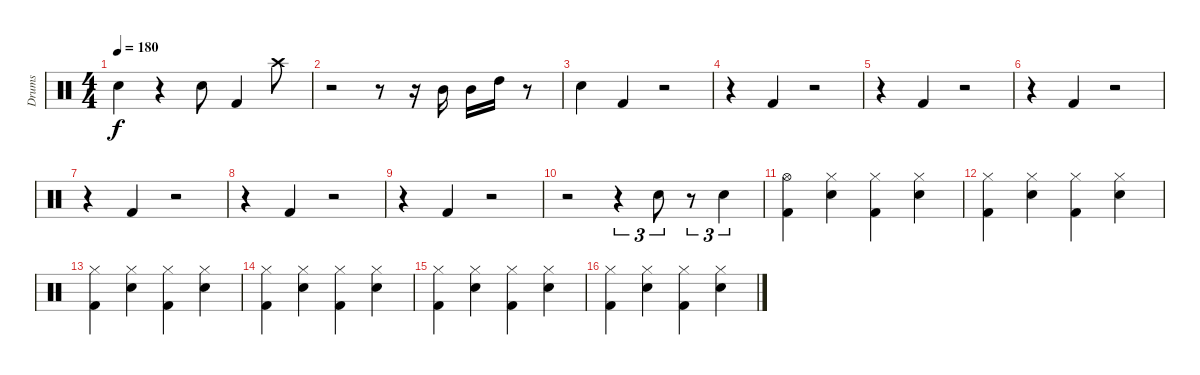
\track ("Drums" "Drums") {instrument percussion}
\staff {score}
\articulation defaults
\ts (4 4)
\tempo 180
\clef neutral
\ks c "Snare (hit) 2".4{dy f}
r.4 "Snare (hit) 2".8 "Kick (hit) 2".4 "Crash high (hit)".8 |
r.2 r.8 r.16 "Mid Tom (hit)".16 "Mid Tom (hit)".16 "High Tom (hit)".16 r.8 |
"Snare (hit) 2".4 "Kick (hit) 2".4 r.2 |
r.4 "Kick (hit) 2".4 r.2 |
r.4 "Kick (hit) 2".4 r.2 |
r.4 "Kick (hit) 2".4 r.2 |
r.4 "Kick (hit) 2".4 r.2 |
r.4 "Kick (hit) 2".4 r.2 |
r.4 "Kick (hit) 2".4 r.2 |
r.2 r.4{tu (3 2)} "Snare (hit) 2".8{tu (3 2)} r.8{tu (3 2)} "Snare (hit) 2".4{tu (3 2)} |
("Hi-Hat (open)" "Kick (hit) 2").4 ("Hi-Hat (closed)" "Snare (hit) 2").4 ("Hi-Hat (closed)" "Kick (hit) 2").4 ("Hi-Hat (closed)" "Snare (hit) 2").4 |
("Hi-Hat (closed)" "Kick (hit) 2").4 ("Hi-Hat (closed)" "Snare (hit) 2").4 ("Hi-Hat (closed)" "Kick (hit) 2").4 ("Hi-Hat (closed)" "Snare (hit) 2").4 |
("Hi-Hat (closed)" "Kick (hit) 2").4 ("Hi-Hat (closed)" "Snare (hit) 2").4 ("Hi-Hat (closed)" "Kick (hit) 2").4 ("Hi-Hat (closed)" "Snare (hit) 2").4 |
("Hi-Hat (closed)" "Kick (hit) 2").4 ("Hi-Hat (closed)" "Snare (hit) 2").4 ("Hi-Hat (closed)" "Kick (hit) 2").4 ("Hi-Hat (closed)" "Snare (hit) 2").4 |
("Hi-Hat (closed)" "Kick (hit) 2").4 ("Hi-Hat (closed)" "Snare (hit) 2").4 ("Hi-Hat (closed)" "Kick (hit) 2").4 ("Hi-Hat (closed)" "Snare (hit) 2").4 |
("Hi-Hat (closed)" "Kick (hit) 2").4 ("Hi-Hat (closed)" "Snare (hit) 2").4 ("Hi-Hat (closed)" "Kick (hit) 2").4 ("Hi-Hat (closed)" "Snare (hit) 2").4
